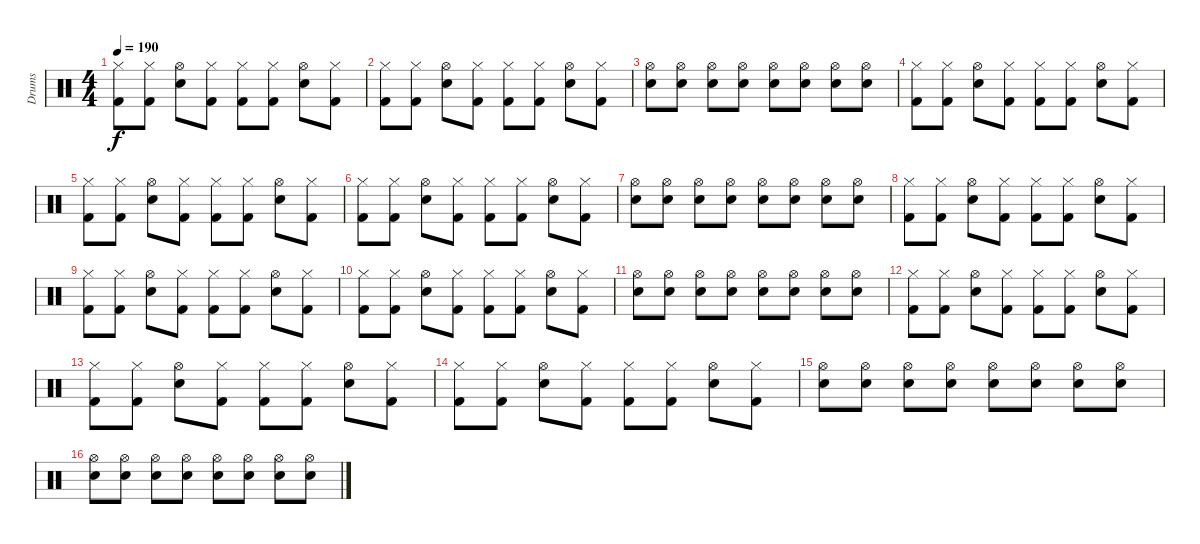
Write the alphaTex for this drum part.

\track ("Drums" "Drums") {instrument percussion}
\staff {score}
\articulation defaults
\ts (4 4)
\tempo 190
\clef neutral
\ks c
("Hi-Hat (closed)" "Kick (hit) 2").8{dy f} ("Hi-Hat (closed)" "Kick (hit) 2").8 ("Hi-Hat (open)" "Snare (hit) 2").8 ("Hi-Hat (closed)" "Kick (hit) 2").8 ("Hi-Hat (closed)" "Kick (hit) 2").8 ("Hi-Hat (closed)" "Kick (hit) 2").8 ("Hi-Hat (open)" "Snare (hit) 2").8 ("Hi-Hat (closed)" "Kick (hit) 2").8 |
("Hi-Hat (closed)" "Kick (hit) 2").8 ("Hi-Hat (closed)" "Kick (hit) 2").8 ("Hi-Hat (open)" "Snare (hit) 2").8 ("Hi-Hat (closed)" "Kick (hit) 2").8 ("Hi-Hat (closed)" "Kick (hit) 2").8 ("Hi-Hat (closed)" "Kick (hit) 2").8 ("Hi-Hat (open)" "Snare (hit) 2").8 ("Hi-Hat (closed)" "Kick (hit) 2").8 |
("Hi-Hat (open)" "Snare (hit) 2").8 ("Hi-Hat (open)" "Snare (hit) 2").8 ("Hi-Hat (open)" "Snare (hit) 2").8 ("Hi-Hat (open)" "Snare (hit) 2").8 ("Hi-Hat (open)" "Snare (hit) 2").8 ("Hi-Hat (open)" "Snare (hit) 2").8 ("Hi-Hat (open)" "Snare (hit) 2").8 ("Hi-Hat (open)" "Snare (hit) 2").8 |
("Hi-Hat (closed)" "Kick (hit) 2").8 ("Hi-Hat (closed)" "Kick (hit) 2").8 ("Hi-Hat (open)" "Snare (hit) 2").8 ("Hi-Hat (closed)" "Kick (hit) 2").8 ("Hi-Hat (closed)" "Kick (hit) 2").8 ("Hi-Hat (closed)" "Kick (hit) 2").8 ("Hi-Hat (open)" "Snare (hit) 2").8 ("Hi-Hat (closed)" "Kick (hit) 2").8 |
("Hi-Hat (closed)" "Kick (hit) 2").8 ("Hi-Hat (closed)" "Kick (hit) 2").8 ("Hi-Hat (open)" "Snare (hit) 2").8 ("Hi-Hat (closed)" "Kick (hit) 2").8 ("Hi-Hat (closed)" "Kick (hit) 2").8 ("Hi-Hat (closed)" "Kick (hit) 2").8 ("Hi-Hat (open)" "Snare (hit) 2").8 ("Hi-Hat (closed)" "Kick (hit) 2").8 |
("Hi-Hat (closed)" "Kick (hit) 2").8 ("Hi-Hat (closed)" "Kick (hit) 2").8 ("Hi-Hat (open)" "Snare (hit) 2").8 ("Hi-Hat (closed)" "Kick (hit) 2").8 ("Hi-Hat (closed)" "Kick (hit) 2").8 ("Hi-Hat (closed)" "Kick (hit) 2").8 ("Hi-Hat (open)" "Snare (hit) 2").8 ("Hi-Hat (closed)" "Kick (hit) 2").8 |
("Hi-Hat (open)" "Snare (hit) 2").8 ("Hi-Hat (open)" "Snare (hit) 2").8 ("Hi-Hat (open)" "Snare (hit) 2").8 ("Hi-Hat (open)" "Snare (hit) 2").8 ("Hi-Hat (open)" "Snare (hit) 2").8 ("Hi-Hat (open)" "Snare (hit) 2").8 ("Hi-Hat (open)" "Snare (hit) 2").8 ("Hi-Hat (open)" "Snare (hit) 2").8 |
("Hi-Hat (closed)" "Kick (hit) 2").8 ("Hi-Hat (closed)" "Kick (hit) 2").8 ("Hi-Hat (open)" "Snare (hit) 2").8 ("Hi-Hat (closed)" "Kick (hit) 2").8 ("Hi-Hat (closed)" "Kick (hit) 2").8 ("Hi-Hat (closed)" "Kick (hit) 2").8 ("Hi-Hat (open)" "Snare (hit) 2").8 ("Hi-Hat (closed)" "Kick (hit) 2").8 |
("Hi-Hat (closed)" "Kick (hit) 2").8 ("Hi-Hat (closed)" "Kick (hit) 2").8 ("Hi-Hat (open)" "Snare (hit) 2").8 ("Hi-Hat (closed)" "Kick (hit) 2").8 ("Hi-Hat (closed)" "Kick (hit) 2").8 ("Hi-Hat (closed)" "Kick (hit) 2").8 ("Hi-Hat (open)" "Snare (hit) 2").8 ("Hi-Hat (closed)" "Kick (hit) 2").8 |
("Hi-Hat (closed)" "Kick (hit) 2").8 ("Hi-Hat (closed)" "Kick (hit) 2").8 ("Hi-Hat (open)" "Snare (hit) 2").8 ("Hi-Hat (closed)" "Kick (hit) 2").8 ("Hi-Hat (closed)" "Kick (hit) 2").8 ("Hi-Hat (closed)" "Kick (hit) 2").8 ("Hi-Hat (open)" "Snare (hit) 2").8 ("Hi-Hat (closed)" "Kick (hit) 2").8 |
("Hi-Hat (open)" "Snare (hit) 2").8 ("Hi-Hat (open)" "Snare (hit) 2").8 ("Hi-Hat (open)" "Snare (hit) 2").8 ("Hi-Hat (open)" "Snare (hit) 2").8 ("Hi-Hat (open)" "Snare (hit) 2").8 ("Hi-Hat (open)" "Snare (hit) 2").8 ("Hi-Hat (open)" "Snare (hit) 2").8 ("Hi-Hat (open)" "Snare (hit) 2").8 |
("Hi-Hat (closed)" "Kick (hit) 2").8 ("Hi-Hat (closed)" "Kick (hit) 2").8 ("Hi-Hat (open)" "Snare (hit) 2").8 ("Hi-Hat (closed)" "Kick (hit) 2").8 ("Hi-Hat (closed)" "Kick (hit) 2").8 ("Hi-Hat (closed)" "Kick (hit) 2").8 ("Hi-Hat (open)" "Snare (hit) 2").8 ("Hi-Hat (closed)" "Kick (hit) 2").8 |
("Hi-Hat (closed)" "Kick (hit) 2").8 ("Hi-Hat (closed)" "Kick (hit) 2").8 ("Hi-Hat (open)" "Snare (hit) 2").8 ("Hi-Hat (closed)" "Kick (hit) 2").8 ("Hi-Hat (closed)" "Kick (hit) 2").8 ("Hi-Hat (closed)" "Kick (hit) 2").8 ("Hi-Hat (open)" "Snare (hit) 2").8 ("Hi-Hat (closed)" "Kick (hit) 2").8 |
("Hi-Hat (closed)" "Kick (hit) 2").8 ("Hi-Hat (closed)" "Kick (hit) 2").8 ("Hi-Hat (open)" "Snare (hit) 2").8 ("Hi-Hat (closed)" "Kick (hit) 2").8 ("Hi-Hat (closed)" "Kick (hit) 2").8 ("Hi-Hat (closed)" "Kick (hit) 2").8 ("Hi-Hat (open)" "Snare (hit) 2").8 ("Hi-Hat (closed)" "Kick (hit) 2").8 |
("Hi-Hat (open)" "Snare (hit) 2").8 ("Hi-Hat (open)" "Snare (hit) 2").8 ("Hi-Hat (open)" "Snare (hit) 2").8 ("Hi-Hat (open)" "Snare (hit) 2").8 ("Hi-Hat (open)" "Snare (hit) 2").8 ("Hi-Hat (open)" "Snare (hit) 2").8 ("Hi-Hat (open)" "Snare (hit) 2").8 ("Hi-Hat (open)" "Snare (hit) 2").8 |
("Hi-Hat (open)" "Snare (hit) 2").8 ("Hi-Hat (open)" "Snare (hit) 2").8 ("Hi-Hat (open)" "Snare (hit) 2").8 ("Hi-Hat (open)" "Snare (hit) 2").8 ("Hi-Hat (open)" "Snare (hit) 2").8 ("Hi-Hat (open)" "Snare (hit) 2").8 ("Hi-Hat (open)" "Snare (hit) 2").8 ("Hi-Hat (open)" "Snare (hit) 2").8
